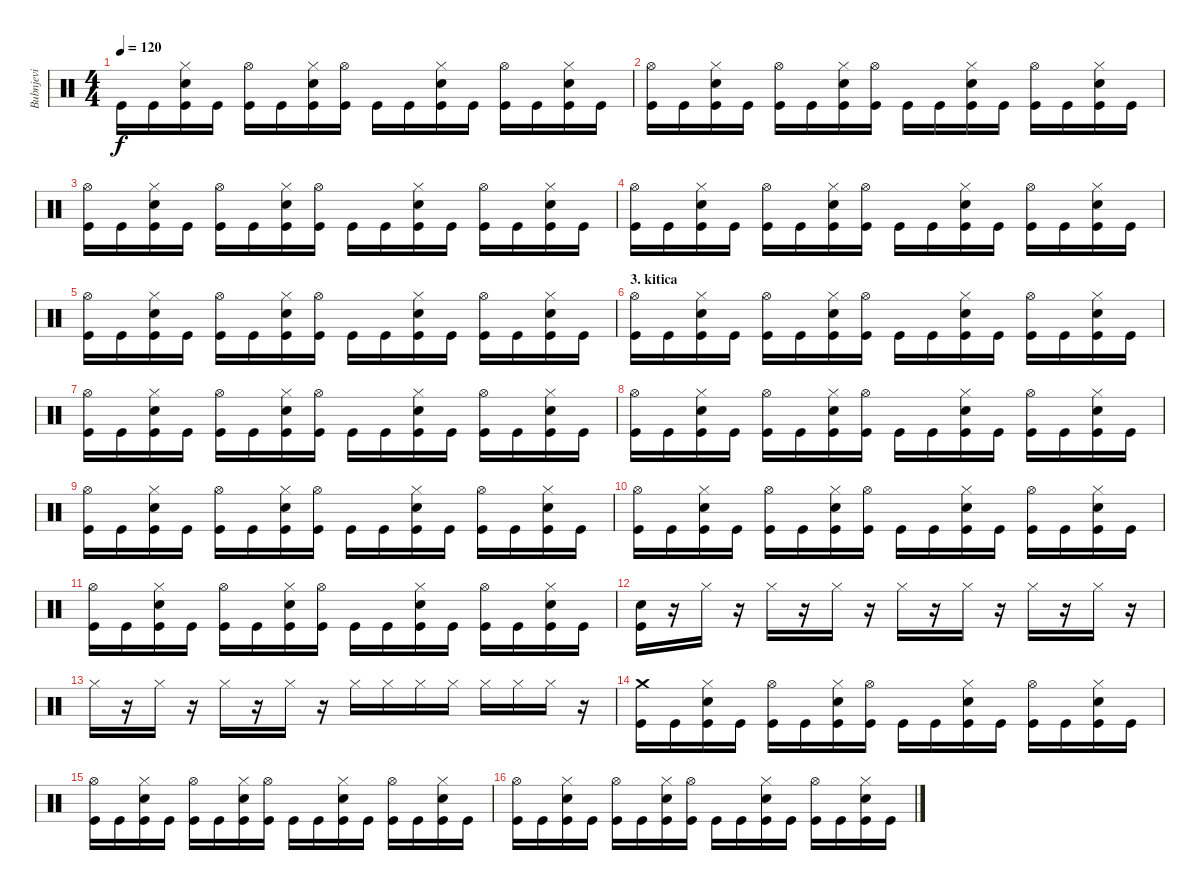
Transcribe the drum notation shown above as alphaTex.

\track ("Bubnjevi" "Bubnjevi") {instrument percussion}
\staff {score}
\articulation defaults
\ts (4 4)
\tempo 120
\clef neutral
\ks c "Kick (hit)".16{dy f} "Kick (hit)".16
("Electric Snare (hit)" "Hi-Hat (closed)" "Kick (hit)").16 "Kick (hit)".16 ("Hi-Hat (open)" "Kick (hit)").16 "Kick (hit)".16 ("Electric Snare (hit)" "Hi-Hat (closed)" "Kick (hit)").16 ("Hi-Hat (open)" "Kick (hit)").16 "Kick (hit)".16 "Kick (hit)".16 ("Electric Snare (hit)" "Hi-Hat (closed)" "Kick (hit)").16 "Kick (hit)".16 ("Hi-Hat (open)" "Kick (hit)").16 "Kick (hit)".16 ("Electric Snare (hit)" "Hi-Hat (closed)" "Kick (hit)").16 "Kick (hit)".16 |
("Hi-Hat (open)" "Kick (hit)").16 "Kick (hit)".16 ("Electric Snare (hit)" "Hi-Hat (closed)" "Kick (hit)").16 "Kick (hit)".16 ("Hi-Hat (open)" "Kick (hit)").16 "Kick (hit)".16 ("Electric Snare (hit)" "Hi-Hat (closed)" "Kick (hit)").16 ("Hi-Hat (open)" "Kick (hit)").16 "Kick (hit)".16 "Kick (hit)".16 ("Electric Snare (hit)" "Hi-Hat (closed)" "Kick (hit)").16 "Kick (hit)".16 ("Hi-Hat (open)" "Kick (hit)").16 "Kick (hit)".16 ("Electric Snare (hit)" "Hi-Hat (closed)" "Kick (hit)").16 "Kick (hit)".16 |
("Hi-Hat (open)" "Kick (hit)").16 "Kick (hit)".16 ("Electric Snare (hit)" "Hi-Hat (closed)" "Kick (hit)").16 "Kick (hit)".16 ("Hi-Hat (open)" "Kick (hit)").16 "Kick (hit)".16 ("Electric Snare (hit)" "Hi-Hat (closed)" "Kick (hit)").16 ("Hi-Hat (open)" "Kick (hit)").16 "Kick (hit)".16 "Kick (hit)".16 ("Electric Snare (hit)" "Hi-Hat (closed)" "Kick (hit)").16 "Kick (hit)".16 ("Hi-Hat (open)" "Kick (hit)").16 "Kick (hit)".16 ("Electric Snare (hit)" "Hi-Hat (closed)" "Kick (hit)").16 "Kick (hit)".16 |
("Hi-Hat (open)" "Kick (hit)").16 "Kick (hit)".16 ("Electric Snare (hit)" "Hi-Hat (closed)" "Kick (hit)").16 "Kick (hit)".16 ("Hi-Hat (open)" "Kick (hit)").16 "Kick (hit)".16 ("Electric Snare (hit)" "Hi-Hat (closed)" "Kick (hit)").16 ("Hi-Hat (open)" "Kick (hit)").16 "Kick (hit)".16 "Kick (hit)".16 ("Electric Snare (hit)" "Hi-Hat (closed)" "Kick (hit)").16 "Kick (hit)".16 ("Hi-Hat (open)" "Kick (hit)").16 "Kick (hit)".16 ("Electric Snare (hit)" "Hi-Hat (closed)" "Kick (hit)").16 "Kick (hit)".16 |
("Hi-Hat (open)" "Kick (hit)").16 "Kick (hit)".16 ("Electric Snare (hit)" "Hi-Hat (closed)" "Kick (hit)").16 "Kick (hit)".16 ("Hi-Hat (open)" "Kick (hit)").16 "Kick (hit)".16 ("Electric Snare (hit)" "Hi-Hat (closed)" "Kick (hit)").16 ("Hi-Hat (open)" "Kick (hit)").16 "Kick (hit)".16 "Kick (hit)".16 ("Electric Snare (hit)" "Hi-Hat (closed)" "Kick (hit)").16 "Kick (hit)".16 ("Hi-Hat (open)" "Kick (hit)").16 "Kick (hit)".16 ("Electric Snare (hit)" "Hi-Hat (closed)" "Kick (hit)").16 "Kick (hit)".16 |
\section ("" "3. kitica")
("Hi-Hat (open)" "Kick (hit)").16 "Kick (hit)".16 ("Electric Snare (hit)" "Hi-Hat (closed)" "Kick (hit)").16 "Kick (hit)".16 ("Hi-Hat (open)" "Kick (hit)").16 "Kick (hit)".16 ("Electric Snare (hit)" "Hi-Hat (closed)" "Kick (hit)").16 ("Hi-Hat (open)" "Kick (hit)").16 "Kick (hit)".16 "Kick (hit)".16 ("Electric Snare (hit)" "Hi-Hat (closed)" "Kick (hit)").16 "Kick (hit)".16 ("Hi-Hat (open)" "Kick (hit)").16 "Kick (hit)".16 ("Electric Snare (hit)" "Hi-Hat (closed)" "Kick (hit)").16 "Kick (hit)".16 |
("Hi-Hat (open)" "Kick (hit)").16 "Kick (hit)".16 ("Electric Snare (hit)" "Hi-Hat (closed)" "Kick (hit)").16 "Kick (hit)".16 ("Hi-Hat (open)" "Kick (hit)").16 "Kick (hit)".16 ("Electric Snare (hit)" "Hi-Hat (closed)" "Kick (hit)").16 ("Hi-Hat (open)" "Kick (hit)").16 "Kick (hit)".16 "Kick (hit)".16 ("Electric Snare (hit)" "Hi-Hat (closed)" "Kick (hit)").16 "Kick (hit)".16 ("Hi-Hat (open)" "Kick (hit)").16 "Kick (hit)".16 ("Electric Snare (hit)" "Hi-Hat (closed)" "Kick (hit)").16 "Kick (hit)".16 |
("Hi-Hat (open)" "Kick (hit)").16 "Kick (hit)".16 ("Electric Snare (hit)" "Hi-Hat (closed)" "Kick (hit)").16 "Kick (hit)".16 ("Hi-Hat (open)" "Kick (hit)").16 "Kick (hit)".16 ("Electric Snare (hit)" "Hi-Hat (closed)" "Kick (hit)").16 ("Hi-Hat (open)" "Kick (hit)").16 "Kick (hit)".16 "Kick (hit)".16 ("Electric Snare (hit)" "Hi-Hat (closed)" "Kick (hit)").16 "Kick (hit)".16 ("Hi-Hat (open)" "Kick (hit)").16 "Kick (hit)".16 ("Electric Snare (hit)" "Hi-Hat (closed)" "Kick (hit)").16 "Kick (hit)".16 |
("Hi-Hat (open)" "Kick (hit)").16 "Kick (hit)".16 ("Electric Snare (hit)" "Hi-Hat (closed)" "Kick (hit)").16 "Kick (hit)".16 ("Hi-Hat (open)" "Kick (hit)").16 "Kick (hit)".16 ("Electric Snare (hit)" "Hi-Hat (closed)" "Kick (hit)").16 ("Hi-Hat (open)" "Kick (hit)").16 "Kick (hit)".16 "Kick (hit)".16 ("Electric Snare (hit)" "Hi-Hat (closed)" "Kick (hit)").16 "Kick (hit)".16 ("Hi-Hat (open)" "Kick (hit)").16 "Kick (hit)".16 ("Electric Snare (hit)" "Hi-Hat (closed)" "Kick (hit)").16 "Kick (hit)".16 |
("Hi-Hat (open)" "Kick (hit)").16 "Kick (hit)".16 ("Electric Snare (hit)" "Hi-Hat (closed)" "Kick (hit)").16 "Kick (hit)".16 ("Hi-Hat (open)" "Kick (hit)").16 "Kick (hit)".16 ("Electric Snare (hit)" "Hi-Hat (closed)" "Kick (hit)").16 ("Hi-Hat (open)" "Kick (hit)").16 "Kick (hit)".16 "Kick (hit)".16 ("Electric Snare (hit)" "Hi-Hat (closed)" "Kick (hit)").16 "Kick (hit)".16 ("Hi-Hat (open)" "Kick (hit)").16 "Kick (hit)".16 ("Electric Snare (hit)" "Hi-Hat (closed)" "Kick (hit)").16 "Kick (hit)".16 |
("Hi-Hat (open)" "Kick (hit)").16 "Kick (hit)".16 ("Electric Snare (hit)" "Hi-Hat (closed)" "Kick (hit)").16 "Kick (hit)".16 ("Hi-Hat (open)" "Kick (hit)").16 "Kick (hit)".16 ("Electric Snare (hit)" "Hi-Hat (closed)" "Kick (hit)").16 ("Hi-Hat (open)" "Kick (hit)").16 "Kick (hit)".16 "Kick (hit)".16 ("Electric Snare (hit)" "Hi-Hat (closed)" "Kick (hit)").16 "Kick (hit)".16 ("Hi-Hat (open)" "Kick (hit)").16 "Kick (hit)".16 ("Electric Snare (hit)" "Hi-Hat (closed)" "Kick (hit)").16 "Kick (hit)".16 |
("Electric Snare (hit)" "Kick (hit)").16 r.16 "Hi-Hat (closed)".16 r.16 "Hi-Hat (closed)".16 r.16 "Hi-Hat (closed)".16 r.16 "Hi-Hat (closed)".16 r.16 "Hi-Hat (closed)".16 r.16 "Hi-Hat (closed)".16 r.16 "Hi-Hat (closed)".16 r.16 |
"Hi-Hat (closed)".16 r.16 "Hi-Hat (closed)".16 r.16 "Hi-Hat (closed)".16 r.16 "Hi-Hat (closed)".16 r.16 "Hi-Hat (closed)".16 "Hi-Hat (closed)".16 "Hi-Hat (closed)".16 "Hi-Hat (closed)".16 "Hi-Hat (closed)".16 "Hi-Hat (closed)".16 "Hi-Hat (closed)".16 r.16 |
("Crash medium (hit)" "Kick (hit)").16 "Kick (hit)".16 ("Electric Snare (hit)" "Hi-Hat (closed)" "Kick (hit)").16 "Kick (hit)".16 ("Hi-Hat (open)" "Kick (hit)").16 "Kick (hit)".16 ("Electric Snare (hit)" "Hi-Hat (closed)" "Kick (hit)").16 ("Hi-Hat (open)" "Kick (hit)").16 "Kick (hit)".16 "Kick (hit)".16 ("Electric Snare (hit)" "Hi-Hat (closed)" "Kick (hit)").16 "Kick (hit)".16 ("Hi-Hat (open)" "Kick (hit)").16 "Kick (hit)".16 ("Electric Snare (hit)" "Hi-Hat (closed)" "Kick (hit)").16 "Kick (hit)".16 |
("Hi-Hat (open)" "Kick (hit)").16 "Kick (hit)".16 ("Electric Snare (hit)" "Hi-Hat (closed)" "Kick (hit)").16 "Kick (hit)".16 ("Hi-Hat (open)" "Kick (hit)").16 "Kick (hit)".16 ("Electric Snare (hit)" "Hi-Hat (closed)" "Kick (hit)").16 ("Hi-Hat (open)" "Kick (hit)").16 "Kick (hit)".16 "Kick (hit)".16 ("Electric Snare (hit)" "Hi-Hat (closed)" "Kick (hit)").16 "Kick (hit)".16 ("Hi-Hat (open)" "Kick (hit)").16 "Kick (hit)".16 ("Electric Snare (hit)" "Hi-Hat (closed)" "Kick (hit)").16 "Kick (hit)".16 |
("Hi-Hat (open)" "Kick (hit)").16 "Kick (hit)".16 ("Electric Snare (hit)" "Hi-Hat (closed)" "Kick (hit)").16 "Kick (hit)".16 ("Hi-Hat (open)" "Kick (hit)").16 "Kick (hit)".16 ("Electric Snare (hit)" "Hi-Hat (closed)" "Kick (hit)").16 ("Hi-Hat (open)" "Kick (hit)").16 "Kick (hit)".16 "Kick (hit)".16 ("Electric Snare (hit)" "Hi-Hat (closed)" "Kick (hit)").16 "Kick (hit)".16 ("Hi-Hat (open)" "Kick (hit)").16 "Kick (hit)".16 ("Electric Snare (hit)" "Hi-Hat (closed)" "Kick (hit)").16 "Kick (hit)".16
